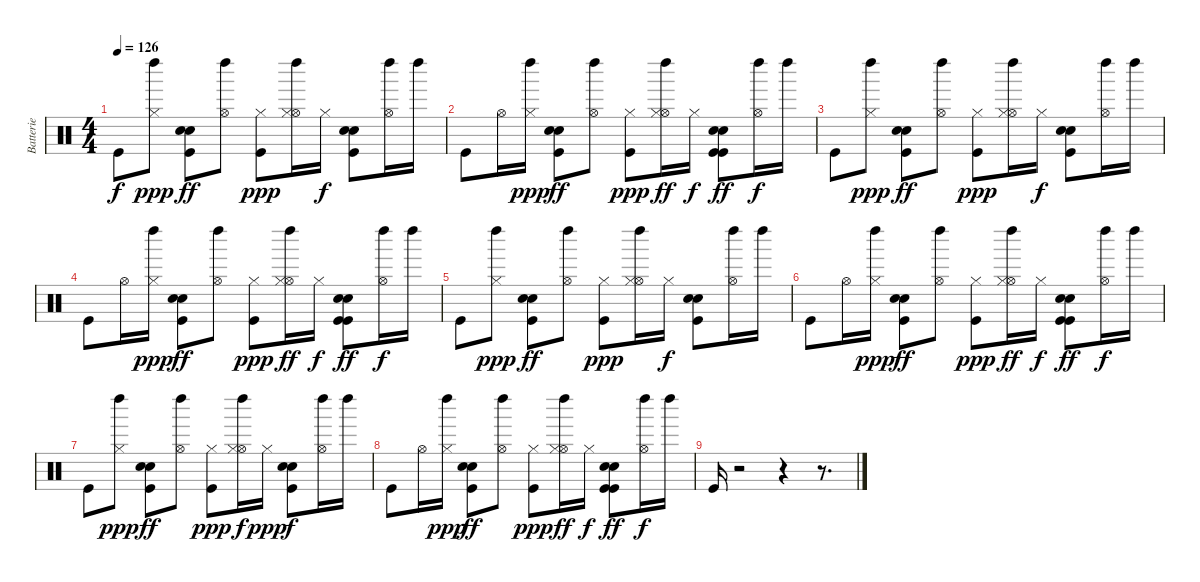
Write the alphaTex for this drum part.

\track ("Batterie" "Batterie") {instrument percussion}
\staff {score}
\articulation defaults
\ts (4 4)
\tempo 126
\clef neutral
\ks c "Kick (hit)".8{dy f}
("Left Maraca (hit)" "Hi-Hat (closed)").8{dy ppp} ("Hand Clap (hit)" "Electric Snare (hit)" "Kick (hit)").8{dy ff} ("Left Maraca (hit)" "Hi-Hat (open)").8 ("Hi-Hat (closed)" "Kick (hit)").8{dy ppp} ("Left Maraca (hit)" "Hi-Hat (open)" "Hi-Hat (closed)").16 "Hi-Hat (closed)".16{dy f} ("Hand Clap (hit)" "Electric Snare (hit)" "Kick (hit)").8 ("Left Maraca (hit)" "Hi-Hat (open)").16 "Left Maraca (hit)".16 |
"Kick (hit)".8 "Hi-Hat (open)".16 ("Left Maraca (hit)" "Hi-Hat (closed)").16{dy ppp} ("Hand Clap (hit)" "Electric Snare (hit)" "Kick (hit)").8{dy ff} ("Left Maraca (hit)" "Hi-Hat (open)").8 ("Hi-Hat (closed)" "Kick (hit)").8{dy ppp} ("Left Maraca (hit)" "Hi-Hat (open)" "Hi-Hat (closed)").16{dy ff} "Hi-Hat (closed)".16{dy f} ("Kick (hit)" "Hand Clap (hit)" "Electric Snare (hit)" "Kick (hit)").8{dy ff} ("Left Maraca (hit)" "Hi-Hat (open)").16{dy f} "Left Maraca (hit)".16 |
"Kick (hit)".8{volume 6} ("Left Maraca (hit)" "Hi-Hat (closed)").8{dy ppp} ("Hand Clap (hit)" "Electric Snare (hit)" "Kick (hit)").8{dy ff} ("Left Maraca (hit)" "Hi-Hat (open)").8 ("Hi-Hat (closed)" "Kick (hit)").8{dy ppp} ("Left Maraca (hit)" "Hi-Hat (open)" "Hi-Hat (closed)").16 "Hi-Hat (closed)".16{dy f} ("Hand Clap (hit)" "Electric Snare (hit)" "Kick (hit)").8 ("Left Maraca (hit)" "Hi-Hat (open)").16 "Left Maraca (hit)".16 |
"Kick (hit)".8 "Hi-Hat (open)".16 ("Left Maraca (hit)" "Hi-Hat (closed)").16{dy ppp} ("Hand Clap (hit)" "Electric Snare (hit)" "Kick (hit)").8{dy ff} ("Left Maraca (hit)" "Hi-Hat (open)").8 ("Hi-Hat (closed)" "Kick (hit)").8{dy ppp} ("Left Maraca (hit)" "Hi-Hat (open)" "Hi-Hat (closed)").16{dy ff} "Hi-Hat (closed)".16{dy f} ("Kick (hit)" "Hand Clap (hit)" "Electric Snare (hit)" "Kick (hit)").8{dy ff} ("Left Maraca (hit)" "Hi-Hat (open)").16{dy f} "Left Maraca (hit)".16 |
"Kick (hit)".8 ("Left Maraca (hit)" "Hi-Hat (closed)").8{dy ppp} ("Hand Clap (hit)" "Electric Snare (hit)" "Kick (hit)").8{dy ff} ("Left Maraca (hit)" "Hi-Hat (open)").8 ("Hi-Hat (closed)" "Kick (hit)").8{dy ppp} ("Left Maraca (hit)" "Hi-Hat (open)" "Hi-Hat (closed)").16 "Hi-Hat (closed)".16{dy f} ("Hand Clap (hit)" "Electric Snare (hit)" "Kick (hit)").8 ("Left Maraca (hit)" "Hi-Hat (open)").16 "Left Maraca (hit)".16 |
"Kick (hit)".8 "Hi-Hat (open)".16 ("Left Maraca (hit)" "Hi-Hat (closed)").16{dy ppp} ("Hand Clap (hit)" "Electric Snare (hit)" "Kick (hit)").8{dy ff} ("Left Maraca (hit)" "Hi-Hat (open)").8 ("Hi-Hat (closed)" "Kick (hit)").8{dy ppp} ("Left Maraca (hit)" "Hi-Hat (open)" "Hi-Hat (closed)").16{dy ff} "Hi-Hat (closed)".16{dy f} ("Kick (hit)" "Hand Clap (hit)" "Electric Snare (hit)" "Kick (hit)").8{dy ff} ("Left Maraca (hit)" "Hi-Hat (open)").16{dy f} "Left Maraca (hit)".16 |
"Kick (hit)".8{volume 0} ("Left Maraca (hit)" "Hi-Hat (closed)").8{dy ppp} ("Hand Clap (hit)" "Electric Snare (hit)" "Kick (hit)").8{dy ff} ("Left Maraca (hit)" "Hi-Hat (open)").8 ("Hi-Hat (closed)" "Kick (hit)").8{dy ppp} ("Left Maraca (hit)" "Hi-Hat (open)" "Hi-Hat (closed)").16{dy f} "Hi-Hat (closed)".16{dy ppp} ("Hand Clap (hit)" "Electric Snare (hit)" "Kick (hit)").8{dy f} ("Left Maraca (hit)" "Hi-Hat (open)").16 "Left Maraca (hit)".16 |
"Kick (hit)".8 "Hi-Hat (open)".16 ("Left Maraca (hit)" "Hi-Hat (closed)").16{dy ppp} ("Hand Clap (hit)" "Electric Snare (hit)" "Kick (hit)").8{dy ff} ("Left Maraca (hit)" "Hi-Hat (open)").8 ("Hi-Hat (closed)" "Kick (hit)").8{dy ppp} ("Left Maraca (hit)" "Hi-Hat (open)" "Hi-Hat (closed)").16{dy ff} "Hi-Hat (closed)".16{dy f} ("Kick (hit)" "Hand Clap (hit)" "Electric Snare (hit)" "Kick (hit)").8{dy ff} ("Left Maraca (hit)" "Hi-Hat (open)").16{dy f} "Left Maraca (hit)".16 |
"Kick (hit)".16 r.2 r.4 r.8{d}
